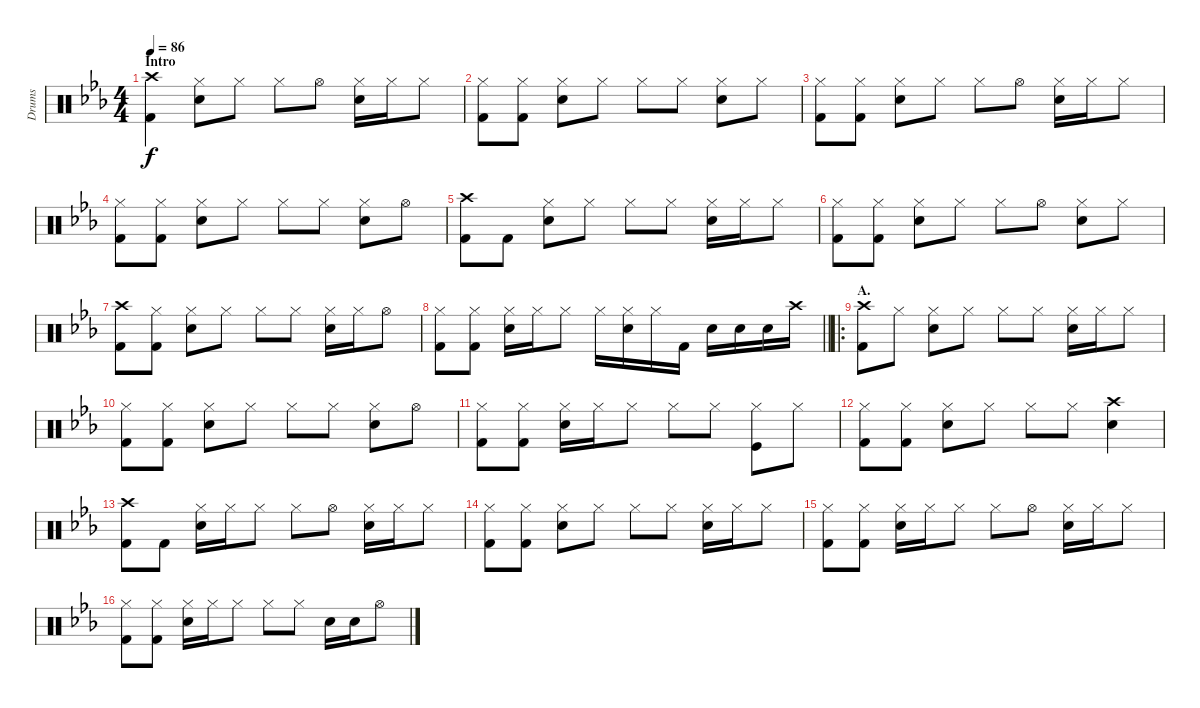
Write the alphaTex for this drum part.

\track ("Drums" "Drums") {instrument percussion}
\staff {score}
\articulation defaults
\ts (4 4)
\section ("" "Intro")
\tempo 86
\clef neutral
\ks eb
("Crash high (hit)" "Kick (hit) 2").4{dy f} ("Hi-Hat (closed)" "Snare (hit) 2").8 "Hi-Hat (closed)".8 "Hi-Hat (closed)".8 "Hi-Hat (open)".8 ("Hi-Hat (closed)" "Snare (hit) 2").16 "Hi-Hat (closed)".16 "Hi-Hat (closed)".8 |
("Hi-Hat (closed)" "Kick (hit) 2").8 ("Hi-Hat (closed)" "Kick (hit) 2").8 ("Hi-Hat (closed)" "Snare (hit) 2").8 "Hi-Hat (closed)".8 "Hi-Hat (closed)".8 "Hi-Hat (closed)".8 ("Hi-Hat (closed)" "Snare (hit) 2").8 "Hi-Hat (closed)".8 |
("Hi-Hat (closed)" "Kick (hit) 2").8 ("Hi-Hat (closed)" "Kick (hit) 2").8 ("Hi-Hat (closed)" "Snare (hit) 2").8 "Hi-Hat (closed)".8 "Hi-Hat (closed)".8 "Hi-Hat (open)".8 ("Hi-Hat (closed)" "Snare (hit) 2").16 "Hi-Hat (closed)".16 "Hi-Hat (closed)".8 |
("Hi-Hat (closed)" "Kick (hit) 2").8 ("Hi-Hat (closed)" "Kick (hit) 2").8 ("Hi-Hat (closed)" "Snare (hit) 2").8 "Hi-Hat (closed)".8 "Hi-Hat (closed)".8 "Hi-Hat (closed)".8 ("Hi-Hat (closed)" "Snare (hit) 2").8 "Hi-Hat (open)".8 |
("Crash high (hit)" "Kick (hit) 2").8 "Kick (hit) 2".8 ("Hi-Hat (closed)" "Snare (hit) 2").8 "Hi-Hat (closed)".8 "Hi-Hat (closed)".8 "Hi-Hat (closed)".8 ("Hi-Hat (closed)" "Snare (hit) 2").16 "Hi-Hat (closed)".16 "Hi-Hat (closed)".8 |
("Hi-Hat (closed)" "Kick (hit) 2").8 ("Hi-Hat (closed)" "Kick (hit) 2").8 ("Hi-Hat (closed)" "Snare (hit) 2").8 "Hi-Hat (closed)".8 "Hi-Hat (closed)".8 "Hi-Hat (open)".8 ("Hi-Hat (closed)" "Snare (hit) 2").8 "Hi-Hat (closed)".8 |
("Crash high (hit)" "Kick (hit) 2").8 ("Hi-Hat (closed)" "Kick (hit) 2").8 ("Hi-Hat (closed)" "Snare (hit) 2").8 "Hi-Hat (closed)".8 "Hi-Hat (closed)".8 "Hi-Hat (closed)".8 ("Hi-Hat (closed)" "Snare (hit) 2").16 "Hi-Hat (closed)".16 "Hi-Hat (open)".8 |
\barLineRight lightlight
("Hi-Hat (closed)" "Kick (hit) 2").8 ("Hi-Hat (closed)" "Kick (hit) 2").8 ("Hi-Hat (closed)" "Snare (hit) 2").16 "Hi-Hat (closed)".16 "Hi-Hat (closed)".8 "Hi-Hat (closed)".16 ("Hi-Hat (closed)" "Snare (hit) 2").16 "Hi-Hat (closed)".16 "Kick (hit) 2".16 "Snare (hit) 2".16 "Snare (hit) 2".16 "Snare (hit) 2".16 "Crash high (hit)".16 |
\ro
\section ("" "A.")
("Crash high (hit)" "Kick (hit) 2").8 "Hi-Hat (closed)".8 ("Hi-Hat (closed)" "Snare (hit) 2").8 "Hi-Hat (closed)".8 "Hi-Hat (closed)".8 "Hi-Hat (closed)".8 ("Hi-Hat (closed)" "Snare (hit) 2").16 "Hi-Hat (closed)".16 "Hi-Hat (closed)".8 |
("Hi-Hat (closed)" "Kick (hit) 2").8 ("Hi-Hat (closed)" "Kick (hit) 2").8 ("Hi-Hat (closed)" "Snare (hit) 2").8 "Hi-Hat (closed)".8 "Hi-Hat (closed)".8 "Hi-Hat (closed)".8 ("Hi-Hat (closed)" "Snare (hit) 2").8 "Hi-Hat (open)".8 |
("Hi-Hat (closed)" "Kick (hit) 2").8 ("Hi-Hat (closed)" "Kick (hit) 2").8 ("Hi-Hat (closed)" "Snare (hit) 2").16 "Hi-Hat (closed)".16 "Hi-Hat (closed)".8 "Hi-Hat (closed)".8 "Hi-Hat (closed)".8 ("Hi-Hat (closed)" "Kick (hit)").8 "Hi-Hat (closed)".8 |
("Hi-Hat (closed)" "Kick (hit) 2").8 ("Hi-Hat (closed)" "Kick (hit) 2").8 ("Hi-Hat (closed)" "Snare (hit) 2").8 "Hi-Hat (closed)".8 "Hi-Hat (closed)".8 "Hi-Hat (closed)".8 ("Crash high (hit)" "Snare (hit) 2").4 |
("Crash high (hit)" "Kick (hit) 2").8 "Kick (hit) 2".8 ("Hi-Hat (closed)" "Snare (hit) 2").16 "Hi-Hat (closed)".16 "Hi-Hat (closed)".8 "Hi-Hat (closed)".8 "Hi-Hat (open)".8 ("Hi-Hat (closed)" "Snare (hit) 2").16 "Hi-Hat (closed)".16 "Hi-Hat (closed)".8 |
("Hi-Hat (closed)" "Kick (hit) 2").8 ("Hi-Hat (closed)" "Kick (hit) 2").8 ("Hi-Hat (closed)" "Snare (hit) 2").8 "Hi-Hat (closed)".8 "Hi-Hat (closed)".8 "Hi-Hat (closed)".8 ("Hi-Hat (closed)" "Snare (hit) 2").16 "Hi-Hat (closed)".16 "Hi-Hat (closed)".8 |
("Hi-Hat (closed)" "Kick (hit) 2").8 ("Hi-Hat (closed)" "Kick (hit) 2").8 ("Hi-Hat (closed)" "Snare (hit) 2").16 "Hi-Hat (closed)".16 "Hi-Hat (closed)".8 "Hi-Hat (closed)".8 "Hi-Hat (open)".8 ("Hi-Hat (closed)" "Snare (hit) 2").16 "Hi-Hat (closed)".16 "Hi-Hat (closed)".8 |
("Hi-Hat (closed)" "Kick (hit) 2").8 ("Hi-Hat (closed)" "Kick (hit) 2").8 ("Hi-Hat (closed)" "Snare (hit) 2").16 "Hi-Hat (closed)".16 "Hi-Hat (closed)".8 "Hi-Hat (closed)".8 "Hi-Hat (closed)".8 "Snare (hit) 2".16 "Snare (hit) 2".16 "Hi-Hat (open)".8
